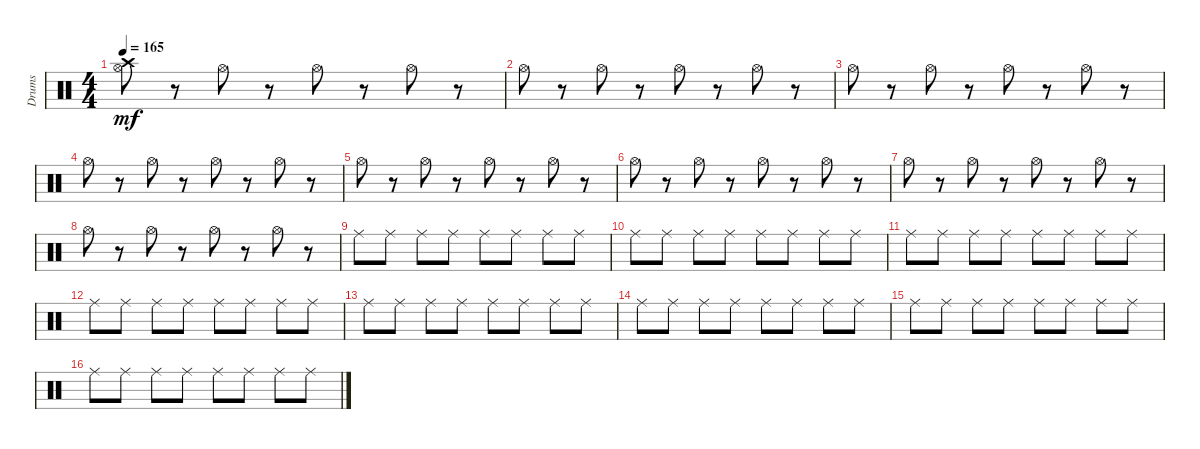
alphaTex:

\track ("Drums" "Drums") {instrument percussion}
\staff {score}
\articulation defaults
\ts (4 4)
\tempo 165
\clef neutral
\ks c
("Hi-Hat (open)" "Crash high (hit)").8{dy mf} r.8 "Hi-Hat (open)".8 r.8 "Hi-Hat (open)".8 r.8 "Hi-Hat (open)".8 r.8 |
"Hi-Hat (open)".8 r.8 "Hi-Hat (open)".8 r.8 "Hi-Hat (open)".8 r.8 "Hi-Hat (open)".8 r.8 |
"Hi-Hat (open)".8 r.8 "Hi-Hat (open)".8 r.8 "Hi-Hat (open)".8 r.8 "Hi-Hat (open)".8 r.8 |
"Hi-Hat (open)".8 r.8 "Hi-Hat (open)".8 r.8 "Hi-Hat (open)".8 r.8 "Hi-Hat (open)".8 r.8 |
"Hi-Hat (open)".8 r.8 "Hi-Hat (open)".8 r.8 "Hi-Hat (open)".8 r.8 "Hi-Hat (open)".8 r.8 |
"Hi-Hat (open)".8 r.8 "Hi-Hat (open)".8 r.8 "Hi-Hat (open)".8 r.8 "Hi-Hat (open)".8 r.8 |
"Hi-Hat (open)".8 r.8 "Hi-Hat (open)".8 r.8 "Hi-Hat (open)".8 r.8 "Hi-Hat (open)".8 r.8 |
"Hi-Hat (open)".8 r.8 "Hi-Hat (open)".8 r.8 "Hi-Hat (open)".8 r.8 "Hi-Hat (open)".8 r.8 |
"Ride (middle)".8 "Ride (middle)".8 "Ride (middle)".8 "Ride (middle)".8 "Ride (middle)".8 "Ride (middle)".8 "Ride (middle)".8 "Ride (middle)".8 |
"Ride (middle)".8 "Ride (middle)".8 "Ride (middle)".8 "Ride (middle)".8 "Ride (middle)".8 "Ride (middle)".8 "Ride (middle)".8 "Ride (middle)".8 |
"Ride (middle)".8 "Ride (middle)".8 "Ride (middle)".8 "Ride (middle)".8 "Ride (middle)".8 "Ride (middle)".8 "Ride (middle)".8 "Ride (middle)".8 |
"Ride (middle)".8 "Ride (middle)".8 "Ride (middle)".8 "Ride (middle)".8 "Ride (middle)".8 "Ride (middle)".8 "Ride (middle)".8 "Ride (middle)".8 |
"Ride (middle)".8 "Ride (middle)".8 "Ride (middle)".8 "Ride (middle)".8 "Ride (middle)".8 "Ride (middle)".8 "Ride (middle)".8 "Ride (middle)".8 |
"Ride (middle)".8 "Ride (middle)".8 "Ride (middle)".8 "Ride (middle)".8 "Ride (middle)".8 "Ride (middle)".8 "Ride (middle)".8 "Ride (middle)".8 |
"Ride (middle)".8 "Ride (middle)".8 "Ride (middle)".8 "Ride (middle)".8 "Ride (middle)".8 "Ride (middle)".8 "Ride (middle)".8 "Ride (middle)".8 |
"Ride (middle)".8 "Ride (middle)".8 "Ride (middle)".8 "Ride (middle)".8 "Ride (middle)".8 "Ride (middle)".8 "Ride (middle)".8 "Ride (middle)".8
